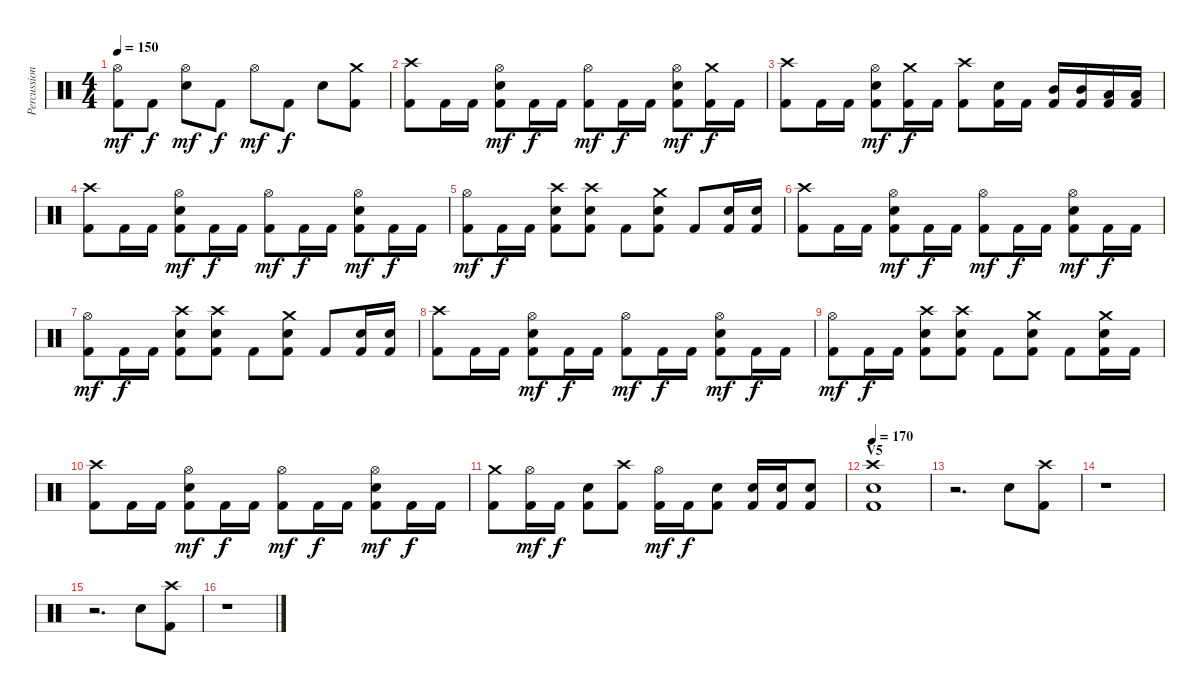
\track ("Percussion" "Percussion") {instrument percussion}
\staff {score}
\articulation defaults
\ts (4 4)
\tempo 150
\clef neutral
\ks c
("Hi-Hat (open)" "Kick (hit) 2").8{dy mf} "Kick (hit) 2".8{dy f} ("Hi-Hat (open)" "Electric Snare (hit)").8{dy mf} "Kick (hit) 2".8{dy f} "Hi-Hat (open)".8{dy mf} "Kick (hit) 2".8{dy f} "Electric Snare (hit)".8 ("Crash medium (hit)" "Kick (hit) 2").8 |
("Crash high (hit)" "Kick (hit) 2").8 "Kick (hit) 2".16 "Kick (hit) 2".16 ("Hi-Hat (open)" "Electric Snare (hit)" "Kick (hit) 2").8{dy mf} "Kick (hit) 2".16{dy f} "Kick (hit) 2".16 ("Hi-Hat (open)" "Kick (hit) 2").8{dy mf} "Kick (hit) 2".16{dy f} "Kick (hit) 2".16 ("Hi-Hat (open)" "Electric Snare (hit)" "Kick (hit) 2").8{dy mf} ("Crash medium (hit)" "Kick (hit) 2").16{dy f} "Kick (hit) 2".16 |
("Crash high (hit)" "Kick (hit) 2").8 "Kick (hit) 2".16 "Kick (hit) 2".16 ("Hi-Hat (open)" "Electric Snare (hit)" "Kick (hit) 2").8{dy mf} ("Crash medium (hit)" "Kick (hit) 2").16{dy f} "Kick (hit) 2".16 ("Crash high (hit)" "Kick (hit) 2").8 ("Electric Snare (hit)" "Kick (hit) 2").16 "Kick (hit) 2".16 ("Mid Tom (hit)" "Kick (hit) 2").16 ("Mid Tom (hit)" "Kick (hit) 2").16 ("Low Tom (hit)" "Kick (hit) 2").16 ("Low Tom (hit)" "Kick (hit) 2").16 |
\section ("" "")
("Crash high (hit)" "Kick (hit) 2").8 "Kick (hit) 2".16 "Kick (hit) 2".16 ("Hi-Hat (open)" "Electric Snare (hit)" "Kick (hit) 2").8{dy mf} "Kick (hit) 2".16{dy f} "Kick (hit) 2".16 ("Hi-Hat (open)" "Kick (hit) 2").8{dy mf} "Kick (hit) 2".16{dy f} "Kick (hit) 2".16 ("Hi-Hat (open)" "Electric Snare (hit)" "Kick (hit) 2").8{dy mf} "Kick (hit) 2".16{dy f} "Kick (hit) 2".16 |
("Hi-Hat (open)" "Kick (hit) 2").8{dy mf} "Kick (hit) 2".16{dy f} "Kick (hit) 2".16 ("Crash high (hit)" "Electric Snare (hit)" "Kick (hit) 2").8 ("Crash high (hit)" "Electric Snare (hit)" "Kick (hit) 2").8 "Kick (hit) 2".8 ("Crash medium (hit)" "Electric Snare (hit)" "Kick (hit) 2").8 "Kick (hit) 2".8 ("Electric Snare (hit)" "Kick (hit) 2").16 ("Electric Snare (hit)" "Kick (hit) 2").16 |
("Crash high (hit)" "Kick (hit) 2").8 "Kick (hit) 2".16 "Kick (hit) 2".16 ("Hi-Hat (open)" "Electric Snare (hit)" "Kick (hit) 2").8{dy mf} "Kick (hit) 2".16{dy f} "Kick (hit) 2".16 ("Hi-Hat (open)" "Kick (hit) 2").8{dy mf} "Kick (hit) 2".16{dy f} "Kick (hit) 2".16 ("Hi-Hat (open)" "Electric Snare (hit)" "Kick (hit) 2").8{dy mf} "Kick (hit) 2".16{dy f} "Kick (hit) 2".16 |
("Hi-Hat (open)" "Kick (hit) 2").8{dy mf} "Kick (hit) 2".16{dy f} "Kick (hit) 2".16 ("Crash high (hit)" "Electric Snare (hit)" "Kick (hit) 2").8 ("Crash high (hit)" "Electric Snare (hit)" "Kick (hit) 2").8 "Kick (hit) 2".8 ("Crash medium (hit)" "Electric Snare (hit)" "Kick (hit) 2").8 "Kick (hit) 2".8 ("Electric Snare (hit)" "Kick (hit) 2").16 ("Electric Snare (hit)" "Kick (hit) 2").16 |
("Crash high (hit)" "Kick (hit) 2").8 "Kick (hit) 2".16 "Kick (hit) 2".16 ("Hi-Hat (open)" "Electric Snare (hit)" "Kick (hit) 2").8{dy mf} "Kick (hit) 2".16{dy f} "Kick (hit) 2".16 ("Hi-Hat (open)" "Kick (hit) 2").8{dy mf} "Kick (hit) 2".16{dy f} "Kick (hit) 2".16 ("Hi-Hat (open)" "Electric Snare (hit)" "Kick (hit) 2").8{dy mf} "Kick (hit) 2".16{dy f} "Kick (hit) 2".16 |
("Hi-Hat (open)" "Kick (hit) 2").8{dy mf} "Kick (hit) 2".16{dy f} "Kick (hit) 2".16 ("Crash high (hit)" "Electric Snare (hit)" "Kick (hit) 2").8 ("Crash high (hit)" "Electric Snare (hit)" "Kick (hit) 2").8 "Kick (hit) 2".8 ("Crash medium (hit)" "Electric Snare (hit)" "Kick (hit) 2").8 "Kick (hit) 2".8 ("Crash medium (hit)" "Electric Snare (hit)" "Kick (hit) 2").16 "Kick (hit) 2".16 |
("Crash high (hit)" "Kick (hit) 2").8 "Kick (hit) 2".16 "Kick (hit) 2".16 ("Hi-Hat (open)" "Electric Snare (hit)" "Kick (hit) 2").8{dy mf} "Kick (hit) 2".16{dy f} "Kick (hit) 2".16 ("Hi-Hat (open)" "Kick (hit) 2").8{dy mf} "Kick (hit) 2".16{dy f} "Kick (hit) 2".16 ("Hi-Hat (open)" "Electric Snare (hit)" "Kick (hit) 2").8{dy mf} "Kick (hit) 2".16{dy f} "Kick (hit) 2".16 |
("Crash medium (hit)" "Kick (hit) 2").8 ("Hi-Hat (open)" "Kick (hit) 2").16{dy mf} "Kick (hit) 2".16{dy f} ("Electric Snare (hit)" "Kick (hit) 2").8 ("Crash high (hit)" "Kick (hit) 2").8 ("Hi-Hat (open)" "Kick (hit) 2").16{dy mf} "Kick (hit) 2".16{dy f} ("Electric Snare (hit)" "Kick (hit) 2").8 ("Electric Snare (hit)" "Kick (hit) 2").16 ("Electric Snare (hit)" "Kick (hit) 2").16 ("Electric Snare (hit)" "Kick (hit) 2").8 |
\section ("" "V5")
\tempo 170
("Crash high (hit)" "Electric Snare (hit)" "Kick (hit) 2").1 |
r.2{d} "Electric Snare (hit)".8 ("Crash high (hit)" "Kick (hit) 2").8 |
r.1 |
r.2{d} "Electric Snare (hit)".8 ("Crash high (hit)" "Kick (hit) 2").8 |
r.1
